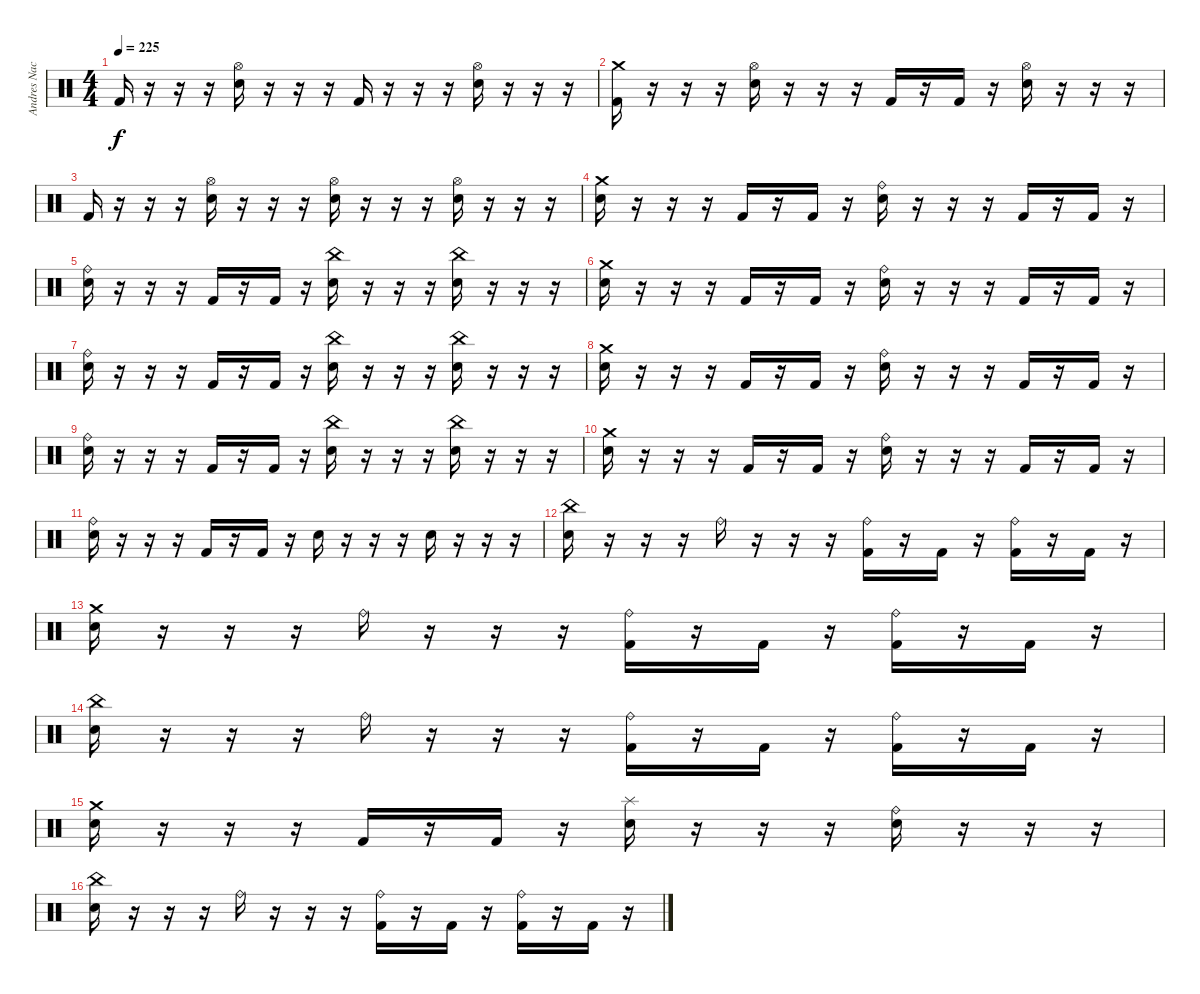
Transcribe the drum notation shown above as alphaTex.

\track ("Andres Nacrur" "Andres Nac") {instrument percussion}
\staff {score}
\articulation defaults
\ts (4 4)
\tempo 225
\clef neutral
\ks c "Kick (hit) 2".16{dy f}
r.16 r.16 r.16 ("Hi-Hat (open)" "Snare (hit) 2").16 r.16 r.16 r.16 "Kick (hit) 2".16 r.16 r.16 r.16 ("Hi-Hat (open)" "Snare (hit) 2").16 r.16 r.16 r.16 |
("Crash medium (hit)" "Kick (hit) 2").16 r.16 r.16 r.16 ("Hi-Hat (open)" "Snare (hit) 2").16 r.16 r.16 r.16 "Kick (hit) 2".16 r.16 "Kick (hit) 2".16 r.16 ("Hi-Hat (open)" "Snare (hit) 2").16 r.16 r.16 r.16 |
"Kick (hit) 2".16 r.16 r.16 r.16 ("Hi-Hat (open)" "Snare (hit) 2").16 r.16 r.16 r.16 ("Hi-Hat (open)" "Snare (hit) 2").16 r.16 r.16 r.16 ("Hi-Hat (open)" "Snare (hit) 2").16 r.16 r.16 r.16 |
("Crash medium (hit)" "Snare (hit) 2").16 r.16 r.16 r.16 "Kick (hit) 2".16 r.16 "Kick (hit) 2".16 r.16 ("Ride (bell)" "Snare (hit) 2").16 r.16 r.16 r.16 "Kick (hit) 2".16 r.16 "Kick (hit) 2".16 r.16 |
("Ride (bell)" "Snare (hit) 2").16 r.16 r.16 r.16 "Kick (hit) 2".16 r.16 "Kick (hit) 2".16 r.16 ("China (hit)" "Snare (hit) 2").16 r.16 r.16 r.16 ("China (hit)" "Snare (hit) 2").16 r.16 r.16 r.16 |
("Crash medium (hit)" "Snare (hit) 2").16 r.16 r.16 r.16 "Kick (hit) 2".16 r.16 "Kick (hit) 2".16 r.16 ("Ride (bell)" "Snare (hit) 2").16 r.16 r.16 r.16 "Kick (hit) 2".16 r.16 "Kick (hit) 2".16 r.16 |
("Ride (bell)" "Snare (hit) 2").16 r.16 r.16 r.16 "Kick (hit) 2".16 r.16 "Kick (hit) 2".16 r.16 ("China (hit)" "Snare (hit) 2").16 r.16 r.16 r.16 ("China (hit)" "Snare (hit) 2").16 r.16 r.16 r.16 |
("Crash medium (hit)" "Snare (hit) 2").16 r.16 r.16 r.16 "Kick (hit) 2".16 r.16 "Kick (hit) 2".16 r.16 ("Ride (bell)" "Snare (hit) 2").16 r.16 r.16 r.16 "Kick (hit) 2".16 r.16 "Kick (hit) 2".16 r.16 |
("Ride (bell)" "Snare (hit) 2").16 r.16 r.16 r.16 "Kick (hit) 2".16 r.16 "Kick (hit) 2".16 r.16 ("China (hit)" "Snare (hit) 2").16 r.16 r.16 r.16 ("China (hit)" "Snare (hit) 2").16 r.16 r.16 r.16 |
("Crash medium (hit)" "Snare (hit) 2").16 r.16 r.16 r.16 "Kick (hit) 2".16 r.16 "Kick (hit) 2".16 r.16 ("Ride (bell)" "Snare (hit) 2").16 r.16 r.16 r.16 "Kick (hit) 2".16 r.16 "Kick (hit) 2".16 r.16 |
("Ride (bell)" "Snare (hit) 2").16 r.16 r.16 r.16 "Kick (hit) 2".16 r.16 "Kick (hit) 2".16 r.16 "Snare (hit) 2".16 r.16 r.16 r.16 "Snare (hit) 2".16 r.16 r.16 r.16 |
("China (hit)" "Snare (hit) 2").16 r.16 r.16 r.16 "Ride (bell)".16 r.16 r.16 r.16 ("Ride (bell)" "Kick (hit) 2").16 r.16 "Kick (hit) 2".16 r.16 ("Ride (bell)" "Kick (hit) 2").16 r.16 "Kick (hit) 2".16 r.16 |
("Crash medium (hit)" "Snare (hit) 2").16 r.16 r.16 r.16 "Ride (bell)".16 r.16 r.16 r.16 ("Ride (bell)" "Kick (hit) 2").16 r.16 "Kick (hit) 2".16 r.16 ("Ride (bell)" "Kick (hit) 2").16 r.16 "Kick (hit) 2".16 r.16 |
("China (hit)" "Snare (hit) 2").16 r.16 r.16 r.16 "Ride (bell)".16 r.16 r.16 r.16 ("Ride (bell)" "Kick (hit) 2").16 r.16 "Kick (hit) 2".16 r.16 ("Ride (bell)" "Kick (hit) 2").16 r.16 "Kick (hit) 2".16 r.16 |
("Crash medium (hit)" "Snare (hit) 2").16 r.16 r.16 r.16 "Kick (hit) 2".16 r.16 "Kick (hit) 2".16 r.16 ("Splash (hit)" "Snare (hit) 2").16 r.16 r.16 r.16 ("Ride (bell)" "Snare (hit) 2").16 r.16 r.16 r.16 |
("China (hit)" "Snare (hit) 2").16 r.16 r.16 r.16 "Ride (bell)".16 r.16 r.16 r.16 ("Ride (bell)" "Kick (hit) 2").16 r.16 "Kick (hit) 2".16 r.16 ("Ride (bell)" "Kick (hit) 2").16 r.16 "Kick (hit) 2".16 r.16
